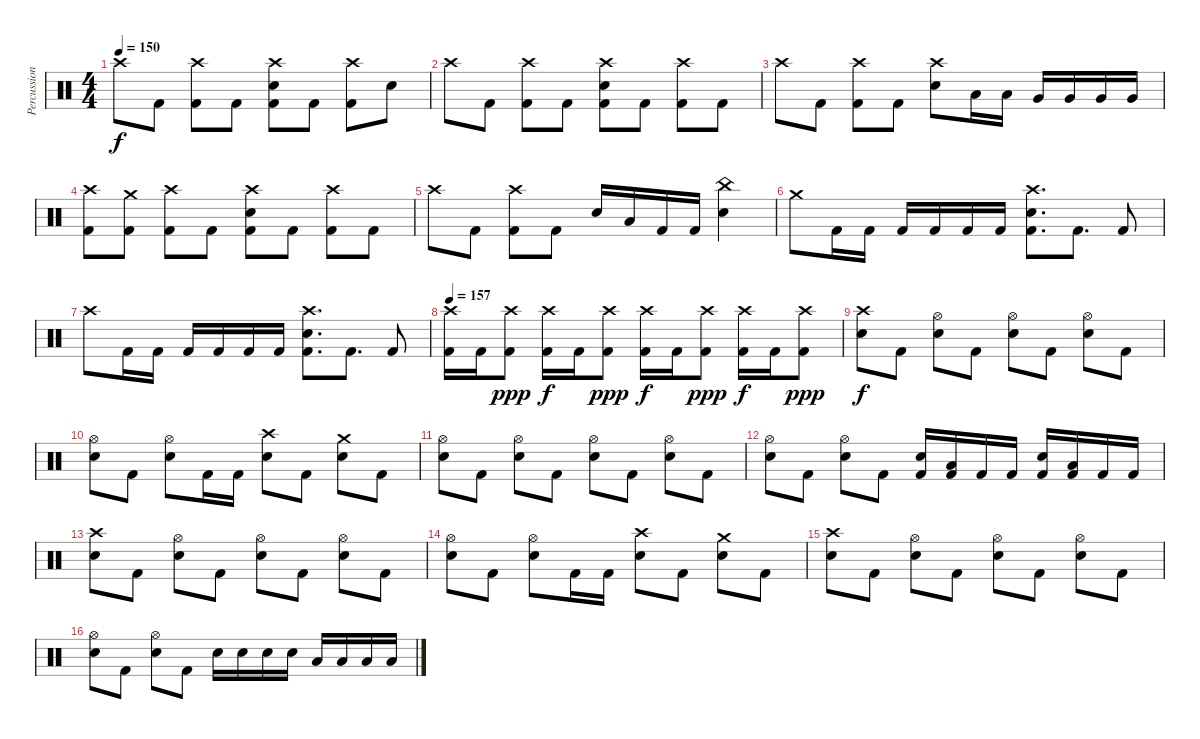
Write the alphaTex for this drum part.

\track ("Percussion" "Percussion") {instrument percussion}
\staff {score}
\articulation defaults
\ts (4 4)
\tempo 150
\clef neutral
\ks c "Crash high (hit)".8{dy f} "Kick (hit) 2".8
("Crash high (hit)" "Kick (hit) 2").8 "Kick (hit) 2".8 ("Crash high (hit)" "Electric Snare (hit)" "Kick (hit) 2").8 "Kick (hit) 2".8 ("Crash high (hit)" "Kick (hit) 2").8 "Electric Snare (hit)".8 |
"Crash high (hit)".8 "Kick (hit) 2".8 ("Crash high (hit)" "Kick (hit) 2").8 "Kick (hit) 2".8 ("Crash high (hit)" "Electric Snare (hit)" "Kick (hit) 2").8 "Kick (hit) 2".8 ("Crash high (hit)" "Kick (hit) 2").8 "Kick (hit) 2".8 |
"Crash high (hit)".8 "Kick (hit) 2".8 ("Crash high (hit)" "Kick (hit) 2").8 "Kick (hit) 2".8 ("Crash high (hit)" "Electric Snare (hit)").8 "Low Tom (hit)".16 "Low Tom (hit)".16 "Very Low Tom (hit)".16 "Very Low Tom (hit)".16 "Very Low Tom (hit)".16 "Very Low Tom (hit)".16 |
("Crash high (hit)" "Kick (hit) 2").8 ("Crash medium (hit)" "Kick (hit) 2").8 ("Crash high (hit)" "Kick (hit) 2").8 "Kick (hit) 2".8 ("Crash high (hit)" "Electric Snare (hit)" "Kick (hit) 2").8 "Kick (hit) 2".8 ("Crash high (hit)" "Kick (hit) 2").8 "Kick (hit) 2".8 |
"Crash high (hit)".8 "Kick (hit) 2".8 ("Crash high (hit)" "Kick (hit) 2").8 "Kick (hit) 2".8 "Electric Snare (hit)".16 "Low Tom (hit)".16 "Kick (hit) 2".16 "Kick (hit) 2".16 ("China (hit)" "Electric Snare (hit)").4 |
"Crash medium (hit)".8 "Kick (hit) 2".16 "Kick (hit) 2".16 "Kick (hit) 2".16 "Kick (hit) 2".16 "Kick (hit) 2".16 "Kick (hit) 2".16 ("Crash high (hit)" "Electric Snare (hit)" "Kick (hit) 2").8{d} "Kick (hit) 2".8{d} "Kick (hit) 2".8 |
"Crash high (hit)".8 "Kick (hit) 2".16 "Kick (hit) 2".16 "Kick (hit) 2".16 "Kick (hit) 2".16 "Kick (hit) 2".16 "Kick (hit) 2".16 ("Crash high (hit)" "Electric Snare (hit)" "Kick (hit) 2").8{d} "Kick (hit) 2".8{d} "Kick (hit) 2".8 |
\tempo 157
("Crash high (hit)" "Kick (hit) 2").16 "Kick (hit) 2".16 ("Crash high (hit)" "Kick (hit) 2").8{dy ppp} ("Crash high (hit)" "Kick (hit) 2").16{dy f} "Kick (hit) 2".16 ("Crash high (hit)" "Kick (hit) 2").8{dy ppp} ("Crash high (hit)" "Kick (hit) 2").16{dy f} "Kick (hit) 2".16 ("Crash high (hit)" "Kick (hit) 2").8{dy ppp} ("Crash high (hit)" "Kick (hit) 2").16{dy f} "Kick (hit) 2".16 ("Crash high (hit)" "Kick (hit) 2").8{dy ppp} |
("Crash high (hit)" "Electric Snare (hit)").8{dy f} "Kick (hit) 2".8 ("Hi-Hat (open)" "Electric Snare (hit)").8 "Kick (hit) 2".8 ("Hi-Hat (open)" "Electric Snare (hit)").8 "Kick (hit) 2".8 ("Hi-Hat (open)" "Electric Snare (hit)").8 "Kick (hit) 2".8 |
("Hi-Hat (open)" "Electric Snare (hit)").8 "Kick (hit) 2".8 ("Hi-Hat (open)" "Electric Snare (hit)").8 "Kick (hit) 2".16 "Kick (hit) 2".16 ("Crash high (hit)" "Electric Snare (hit)").8 "Kick (hit) 2".8 ("Crash medium (hit)" "Electric Snare (hit)").8 "Kick (hit) 2".8 |
("Hi-Hat (open)" "Electric Snare (hit)").8 "Kick (hit) 2".8 ("Hi-Hat (open)" "Electric Snare (hit)").8 "Kick (hit) 2".8 ("Hi-Hat (open)" "Electric Snare (hit)").8 "Kick (hit) 2".8 ("Hi-Hat (open)" "Electric Snare (hit)").8 "Kick (hit) 2".8 |
("Hi-Hat (open)" "Electric Snare (hit)").8 "Kick (hit) 2".8 ("Hi-Hat (open)" "Electric Snare (hit)").8 "Kick (hit) 2".8 ("Electric Snare (hit)" "Kick (hit) 2").16 ("Low Tom (hit)" "Kick (hit) 2").16 "Kick (hit) 2".16 "Kick (hit) 2".16 ("Electric Snare (hit)" "Kick (hit) 2").16 ("Low Tom (hit)" "Kick (hit) 2").16 "Kick (hit) 2".16 "Kick (hit) 2".16 |
("Crash high (hit)" "Electric Snare (hit)").8 "Kick (hit) 2".8 ("Hi-Hat (open)" "Electric Snare (hit)").8 "Kick (hit) 2".8 ("Hi-Hat (open)" "Electric Snare (hit)").8 "Kick (hit) 2".8 ("Hi-Hat (open)" "Electric Snare (hit)").8 "Kick (hit) 2".8 |
("Hi-Hat (open)" "Electric Snare (hit)").8 "Kick (hit) 2".8 ("Hi-Hat (open)" "Electric Snare (hit)").8 "Kick (hit) 2".16 "Kick (hit) 2".16 ("Crash high (hit)" "Electric Snare (hit)").8 "Kick (hit) 2".8 ("Crash medium (hit)" "Electric Snare (hit)").8 "Kick (hit) 2".8 |
("Crash high (hit)" "Electric Snare (hit)").8 "Kick (hit) 2".8 ("Hi-Hat (open)" "Electric Snare (hit)").8 "Kick (hit) 2".8 ("Hi-Hat (open)" "Electric Snare (hit)").8 "Kick (hit) 2".8 ("Hi-Hat (open)" "Electric Snare (hit)").8 "Kick (hit) 2".8 |
("Hi-Hat (open)" "Electric Snare (hit)").8 "Kick (hit) 2".8 ("Hi-Hat (open)" "Electric Snare (hit)").8 "Kick (hit) 2".8 "Electric Snare (hit)".16 "Electric Snare (hit)".16 "Electric Snare (hit)".16 "Electric Snare (hit)".16 "Low Tom (hit)".16 "Low Tom (hit)".16 "Low Tom (hit)".16 "Low Tom (hit)".16
